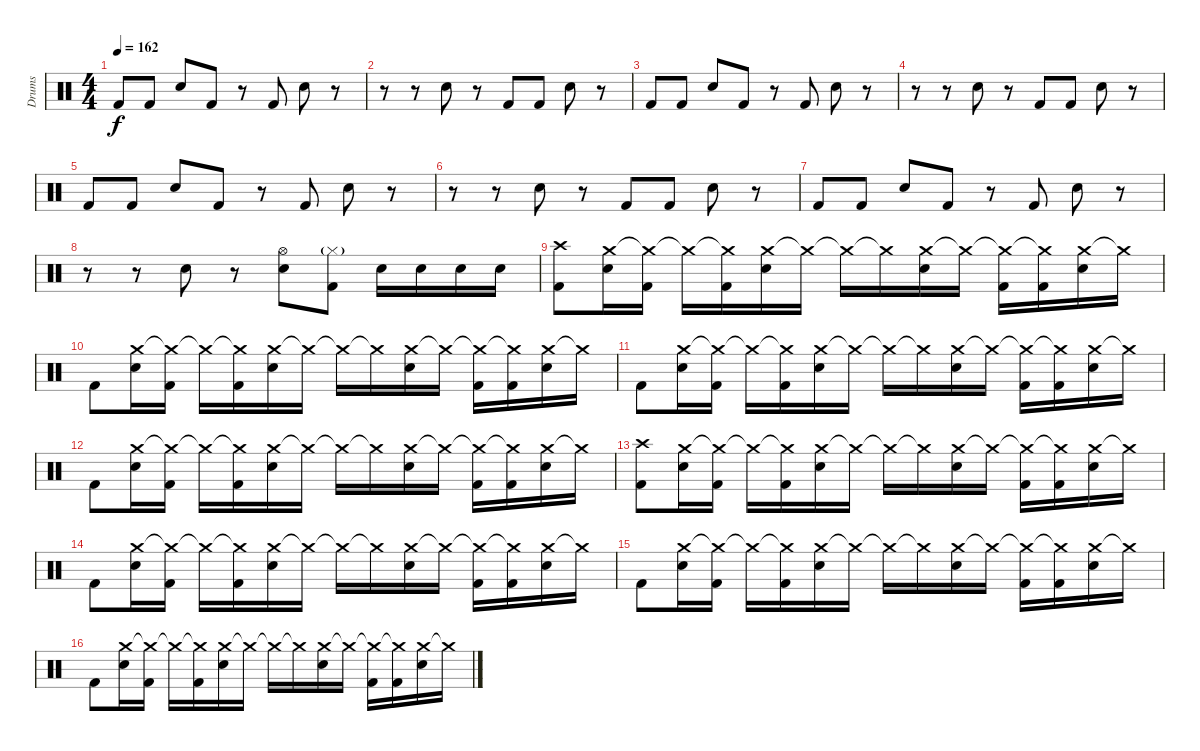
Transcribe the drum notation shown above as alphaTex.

\track ("Drums" "Drums") {instrument percussion}
\staff {score}
\articulation defaults
\ts (4 4)
\tempo 162
\clef neutral
\ks c "Kick (hit) 2".8{dy f} "Kick (hit) 2".8 "Electric Snare (hit)".8 "Kick (hit) 2".8
r.8 "Kick (hit) 2".8 "Electric Snare (hit)".8 r.8 |
r.8 r.8 "Electric Snare (hit)".8 r.8 "Kick (hit) 2".8 "Kick (hit) 2".8 "Electric Snare (hit)".8 r.8 |
"Kick (hit) 2".8 "Kick (hit) 2".8 "Electric Snare (hit)".8 "Kick (hit) 2".8 r.8 "Kick (hit) 2".8 "Electric Snare (hit)".8 r.8 |
r.8 r.8 "Electric Snare (hit)".8 r.8 "Kick (hit) 2".8 "Kick (hit) 2".8 "Electric Snare (hit)".8 r.8 |
"Kick (hit) 2".8 "Kick (hit) 2".8 "Electric Snare (hit)".8 "Kick (hit) 2".8 r.8 "Kick (hit) 2".8 "Electric Snare (hit)".8 r.8 |
r.8 r.8 "Electric Snare (hit)".8 r.8 "Kick (hit) 2".8 "Kick (hit) 2".8 "Electric Snare (hit)".8 r.8 |
"Kick (hit) 2".8 "Kick (hit) 2".8 "Electric Snare (hit)".8 "Kick (hit) 2".8 r.8 "Kick (hit) 2".8 "Electric Snare (hit)".8 r.8 |
r.8 r.8 "Electric Snare (hit)".8 r.8 ("Hi-Hat (open)" "Electric Snare (hit)").8 ("Hi-Hat (closed)"{g} "Kick (hit) 2").8 "Electric Snare (hit)".16 "Electric Snare (hit)".16 "Electric Snare (hit)".16 "Electric Snare (hit)".16 |
("Crash high (hit)" "Kick (hit) 2").8 ("Crash medium (hit)" "Electric Snare (hit)").16 ("Crash medium (hit)"{t} "Kick (hit) 2").16 "Crash medium (hit)"{t}.16 ("Crash medium (hit)"{t} "Kick (hit) 2").16 ("Crash medium (hit)" "Electric Snare (hit)").16 "Crash medium (hit)"{t}.16 "Crash medium (hit)"{t}.16 "Crash medium (hit)"{t}.16 ("Crash medium (hit)" "Electric Snare (hit)").16 "Crash medium (hit)"{t}.16 ("Crash medium (hit)"{t} "Kick (hit) 2").16 ("Crash medium (hit)"{t} "Kick (hit) 2").16 ("Crash medium (hit)" "Electric Snare (hit)").16 "Crash medium (hit)"{t}.16 |
"Kick (hit) 2".8 ("Crash medium (hit)" "Electric Snare (hit)").16 ("Crash medium (hit)"{t} "Kick (hit) 2").16 "Crash medium (hit)"{t}.16 ("Crash medium (hit)"{t} "Kick (hit) 2").16 ("Crash medium (hit)" "Electric Snare (hit)").16 "Crash medium (hit)"{t}.16 "Crash medium (hit)"{t}.16 "Crash medium (hit)"{t}.16 ("Crash medium (hit)" "Electric Snare (hit)").16 "Crash medium (hit)"{t}.16 ("Crash medium (hit)"{t} "Kick (hit) 2").16 ("Crash medium (hit)"{t} "Kick (hit) 2").16 ("Crash medium (hit)" "Electric Snare (hit)").16 "Crash medium (hit)"{t}.16 |
"Kick (hit) 2".8 ("Crash medium (hit)" "Electric Snare (hit)").16 ("Crash medium (hit)"{t} "Kick (hit) 2").16 "Crash medium (hit)"{t}.16 ("Crash medium (hit)"{t} "Kick (hit) 2").16 ("Crash medium (hit)" "Electric Snare (hit)").16 "Crash medium (hit)"{t}.16 "Crash medium (hit)"{t}.16 "Crash medium (hit)"{t}.16 ("Crash medium (hit)" "Electric Snare (hit)").16 "Crash medium (hit)"{t}.16 ("Crash medium (hit)"{t} "Kick (hit) 2").16 ("Crash medium (hit)"{t} "Kick (hit) 2").16 ("Crash medium (hit)" "Electric Snare (hit)").16 "Crash medium (hit)"{t}.16 |
"Kick (hit) 2".8 ("Crash medium (hit)" "Electric Snare (hit)").16 ("Crash medium (hit)"{t} "Kick (hit) 2").16 "Crash medium (hit)"{t}.16 ("Crash medium (hit)"{t} "Kick (hit) 2").16 ("Crash medium (hit)" "Electric Snare (hit)").16 "Crash medium (hit)"{t}.16 "Crash medium (hit)"{t}.16 "Crash medium (hit)"{t}.16 ("Crash medium (hit)" "Electric Snare (hit)").16 "Crash medium (hit)"{t}.16 ("Crash medium (hit)"{t} "Kick (hit) 2").16 ("Crash medium (hit)"{t} "Kick (hit) 2").16 ("Crash medium (hit)" "Electric Snare (hit)").16 "Crash medium (hit)"{t}.16 |
("Crash high (hit)" "Kick (hit) 2").8 ("Crash medium (hit)" "Electric Snare (hit)").16 ("Crash medium (hit)"{t} "Kick (hit) 2").16 "Crash medium (hit)"{t}.16 ("Crash medium (hit)"{t} "Kick (hit) 2").16 ("Crash medium (hit)" "Electric Snare (hit)").16 "Crash medium (hit)"{t}.16 "Crash medium (hit)"{t}.16 "Crash medium (hit)"{t}.16 ("Crash medium (hit)" "Electric Snare (hit)").16 "Crash medium (hit)"{t}.16 ("Crash medium (hit)"{t} "Kick (hit) 2").16 ("Crash medium (hit)"{t} "Kick (hit) 2").16 ("Crash medium (hit)" "Electric Snare (hit)").16 "Crash medium (hit)"{t}.16 |
"Kick (hit) 2".8 ("Crash medium (hit)" "Electric Snare (hit)").16 ("Crash medium (hit)"{t} "Kick (hit) 2").16 "Crash medium (hit)"{t}.16 ("Crash medium (hit)"{t} "Kick (hit) 2").16 ("Crash medium (hit)" "Electric Snare (hit)").16 "Crash medium (hit)"{t}.16 "Crash medium (hit)"{t}.16 "Crash medium (hit)"{t}.16 ("Crash medium (hit)" "Electric Snare (hit)").16 "Crash medium (hit)"{t}.16 ("Crash medium (hit)"{t} "Kick (hit) 2").16 ("Crash medium (hit)"{t} "Kick (hit) 2").16 ("Crash medium (hit)" "Electric Snare (hit)").16 "Crash medium (hit)"{t}.16 |
"Kick (hit) 2".8 ("Crash medium (hit)" "Electric Snare (hit)").16 ("Crash medium (hit)"{t} "Kick (hit) 2").16 "Crash medium (hit)"{t}.16 ("Crash medium (hit)"{t} "Kick (hit) 2").16 ("Crash medium (hit)" "Electric Snare (hit)").16 "Crash medium (hit)"{t}.16 "Crash medium (hit)"{t}.16 "Crash medium (hit)"{t}.16 ("Crash medium (hit)" "Electric Snare (hit)").16 "Crash medium (hit)"{t}.16 ("Crash medium (hit)"{t} "Kick (hit) 2").16 ("Crash medium (hit)"{t} "Kick (hit) 2").16 ("Crash medium (hit)" "Electric Snare (hit)").16 "Crash medium (hit)"{t}.16 |
"Kick (hit) 2".8 ("Crash medium (hit)" "Electric Snare (hit)").16 ("Crash medium (hit)"{t} "Kick (hit) 2").16 "Crash medium (hit)"{t}.16 ("Crash medium (hit)"{t} "Kick (hit) 2").16 ("Crash medium (hit)" "Electric Snare (hit)").16 "Crash medium (hit)"{t}.16 "Crash medium (hit)"{t}.16 "Crash medium (hit)"{t}.16 ("Crash medium (hit)" "Electric Snare (hit)").16 "Crash medium (hit)"{t}.16 ("Crash medium (hit)"{t} "Kick (hit) 2").16 ("Crash medium (hit)"{t} "Kick (hit) 2").16 ("Crash medium (hit)" "Electric Snare (hit)").16 "Crash medium (hit)"{t}.16
